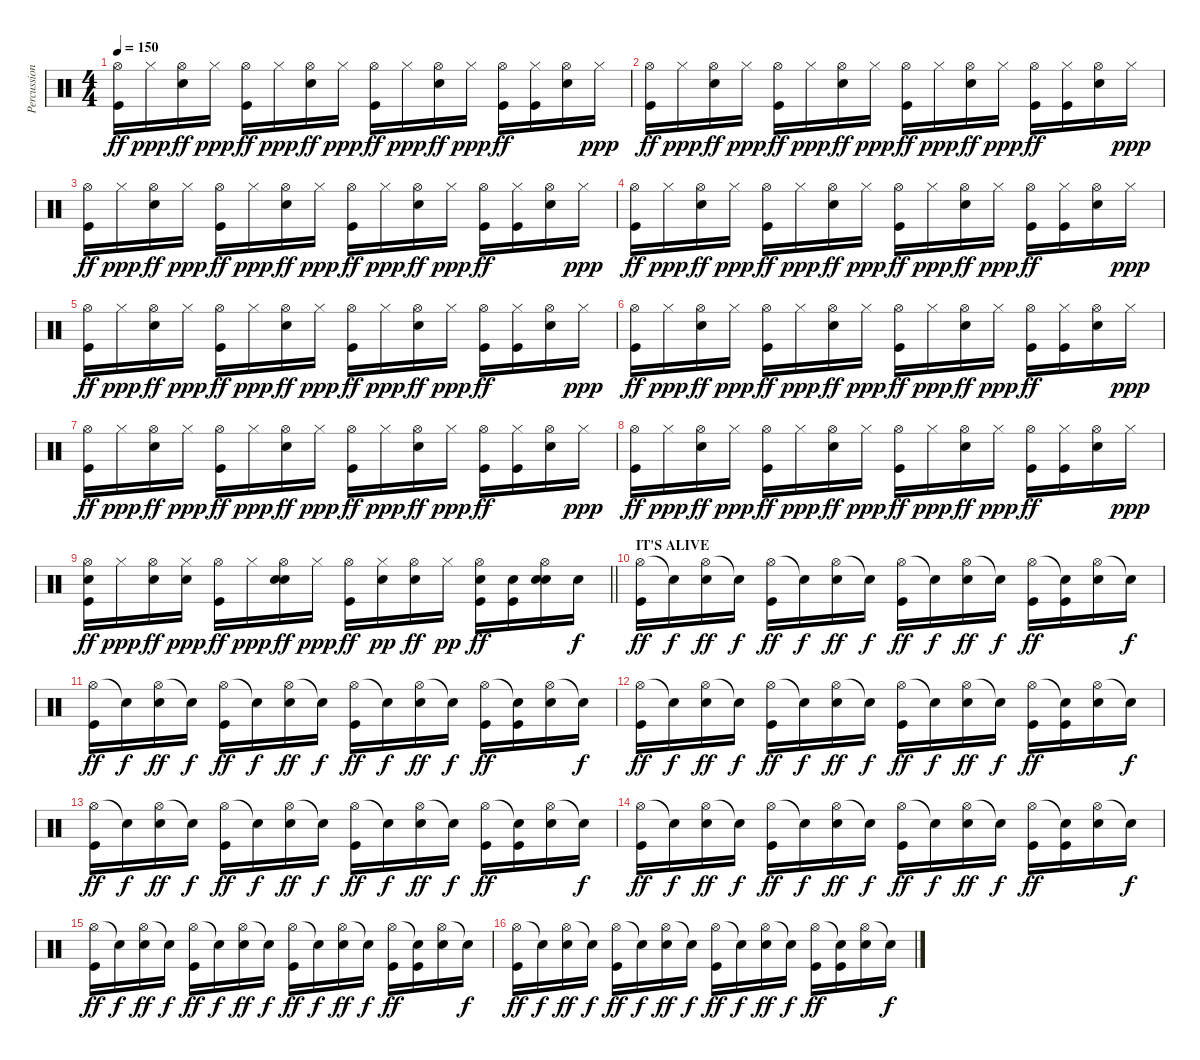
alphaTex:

\track ("Percussion" "Percussion") {instrument percussion}
\staff {score}
\articulation defaults
\ts (4 4)
\tempo 150
\clef neutral
\ks c
("Hi-Hat (open)" "Kick (hit)").16{dy ff} "Hi-Hat (closed)".16{dy ppp} ("Hi-Hat (open)" "Electric Snare (hit)").16{dy ff} "Hi-Hat (closed)".16{dy ppp} ("Hi-Hat (open)" "Kick (hit)").16{dy ff} "Hi-Hat (closed)".16{dy ppp} ("Hi-Hat (open)" "Electric Snare (hit)").16{dy ff} "Hi-Hat (closed)".16{dy ppp} ("Hi-Hat (open)" "Kick (hit)").16{dy ff} "Hi-Hat (closed)".16{dy ppp} ("Hi-Hat (open)" "Electric Snare (hit)").16{dy ff} "Hi-Hat (closed)".16{dy ppp} ("Hi-Hat (open)" "Kick (hit)").16{dy ff} ("Hi-Hat (closed)" "Kick (hit)").16 ("Hi-Hat (open)" "Electric Snare (hit)").16 "Hi-Hat (closed)".16{dy ppp} |
("Hi-Hat (open)" "Kick (hit)").16{dy ff} "Hi-Hat (closed)".16{dy ppp} ("Hi-Hat (open)" "Electric Snare (hit)").16{dy ff} "Hi-Hat (closed)".16{dy ppp} ("Hi-Hat (open)" "Kick (hit)").16{dy ff} "Hi-Hat (closed)".16{dy ppp} ("Hi-Hat (open)" "Electric Snare (hit)").16{dy ff} "Hi-Hat (closed)".16{dy ppp} ("Hi-Hat (open)" "Kick (hit)").16{dy ff} "Hi-Hat (closed)".16{dy ppp} ("Hi-Hat (open)" "Electric Snare (hit)").16{dy ff} "Hi-Hat (closed)".16{dy ppp} ("Hi-Hat (open)" "Kick (hit)").16{dy ff} ("Hi-Hat (closed)" "Kick (hit)").16 ("Hi-Hat (open)" "Electric Snare (hit)").16 "Hi-Hat (closed)".16{dy ppp} |
("Hi-Hat (open)" "Kick (hit)").16{dy ff} "Hi-Hat (closed)".16{dy ppp} ("Hi-Hat (open)" "Electric Snare (hit)").16{dy ff} "Hi-Hat (closed)".16{dy ppp} ("Hi-Hat (open)" "Kick (hit)").16{dy ff} "Hi-Hat (closed)".16{dy ppp} ("Hi-Hat (open)" "Electric Snare (hit)").16{dy ff} "Hi-Hat (closed)".16{dy ppp} ("Hi-Hat (open)" "Kick (hit)").16{dy ff} "Hi-Hat (closed)".16{dy ppp} ("Hi-Hat (open)" "Electric Snare (hit)").16{dy ff} "Hi-Hat (closed)".16{dy ppp} ("Hi-Hat (open)" "Kick (hit)").16{dy ff} ("Hi-Hat (closed)" "Kick (hit)").16 ("Hi-Hat (open)" "Electric Snare (hit)").16 "Hi-Hat (closed)".16{dy ppp} |
("Hi-Hat (open)" "Kick (hit)").16{dy ff} "Hi-Hat (closed)".16{dy ppp} ("Hi-Hat (open)" "Electric Snare (hit)").16{dy ff} "Hi-Hat (closed)".16{dy ppp} ("Hi-Hat (open)" "Kick (hit)").16{dy ff} "Hi-Hat (closed)".16{dy ppp} ("Hi-Hat (open)" "Electric Snare (hit)").16{dy ff} "Hi-Hat (closed)".16{dy ppp} ("Hi-Hat (open)" "Kick (hit)").16{dy ff} "Hi-Hat (closed)".16{dy ppp} ("Hi-Hat (open)" "Electric Snare (hit)").16{dy ff} "Hi-Hat (closed)".16{dy ppp} ("Hi-Hat (open)" "Kick (hit)").16{dy ff} ("Hi-Hat (closed)" "Kick (hit)").16 ("Hi-Hat (open)" "Electric Snare (hit)").16 "Hi-Hat (closed)".16{dy ppp} |
("Hi-Hat (open)" "Kick (hit)").16{dy ff} "Hi-Hat (closed)".16{dy ppp} ("Hi-Hat (open)" "Electric Snare (hit)").16{dy ff} "Hi-Hat (closed)".16{dy ppp} ("Hi-Hat (open)" "Kick (hit)").16{dy ff} "Hi-Hat (closed)".16{dy ppp} ("Hi-Hat (open)" "Electric Snare (hit)").16{dy ff} "Hi-Hat (closed)".16{dy ppp} ("Hi-Hat (open)" "Kick (hit)").16{dy ff} "Hi-Hat (closed)".16{dy ppp} ("Hi-Hat (open)" "Electric Snare (hit)").16{dy ff} "Hi-Hat (closed)".16{dy ppp} ("Hi-Hat (open)" "Kick (hit)").16{dy ff} ("Hi-Hat (closed)" "Kick (hit)").16 ("Hi-Hat (open)" "Electric Snare (hit)").16 "Hi-Hat (closed)".16{dy ppp} |
("Hi-Hat (open)" "Kick (hit)").16{dy ff} "Hi-Hat (closed)".16{dy ppp} ("Hi-Hat (open)" "Electric Snare (hit)").16{dy ff} "Hi-Hat (closed)".16{dy ppp} ("Hi-Hat (open)" "Kick (hit)").16{dy ff} "Hi-Hat (closed)".16{dy ppp} ("Hi-Hat (open)" "Electric Snare (hit)").16{dy ff} "Hi-Hat (closed)".16{dy ppp} ("Hi-Hat (open)" "Kick (hit)").16{dy ff} "Hi-Hat (closed)".16{dy ppp} ("Hi-Hat (open)" "Electric Snare (hit)").16{dy ff} "Hi-Hat (closed)".16{dy ppp} ("Hi-Hat (open)" "Kick (hit)").16{dy ff} ("Hi-Hat (closed)" "Kick (hit)").16 ("Hi-Hat (open)" "Electric Snare (hit)").16 "Hi-Hat (closed)".16{dy ppp} |
("Hi-Hat (open)" "Kick (hit)").16{dy ff} "Hi-Hat (closed)".16{dy ppp} ("Hi-Hat (open)" "Electric Snare (hit)").16{dy ff} "Hi-Hat (closed)".16{dy ppp} ("Hi-Hat (open)" "Kick (hit)").16{dy ff} "Hi-Hat (closed)".16{dy ppp} ("Hi-Hat (open)" "Electric Snare (hit)").16{dy ff} "Hi-Hat (closed)".16{dy ppp} ("Hi-Hat (open)" "Kick (hit)").16{dy ff} "Hi-Hat (closed)".16{dy ppp} ("Hi-Hat (open)" "Electric Snare (hit)").16{dy ff} "Hi-Hat (closed)".16{dy ppp} ("Hi-Hat (open)" "Kick (hit)").16{dy ff} ("Hi-Hat (closed)" "Kick (hit)").16 ("Hi-Hat (open)" "Electric Snare (hit)").16 "Hi-Hat (closed)".16{dy ppp} |
("Hi-Hat (open)" "Kick (hit)").16{dy ff} "Hi-Hat (closed)".16{dy ppp} ("Hi-Hat (open)" "Electric Snare (hit)").16{dy ff} "Hi-Hat (closed)".16{dy ppp} ("Hi-Hat (open)" "Kick (hit)").16{dy ff} "Hi-Hat (closed)".16{dy ppp} ("Hi-Hat (open)" "Electric Snare (hit)").16{dy ff} "Hi-Hat (closed)".16{dy ppp} ("Hi-Hat (open)" "Kick (hit)").16{dy ff} "Hi-Hat (closed)".16{dy ppp} ("Hi-Hat (open)" "Electric Snare (hit)").16{dy ff} "Hi-Hat (closed)".16{dy ppp} ("Hi-Hat (open)" "Kick (hit)").16{dy ff} ("Hi-Hat (closed)" "Kick (hit)").16 ("Hi-Hat (open)" "Electric Snare (hit)").16 "Hi-Hat (closed)".16{dy ppp} |
\barLineRight lightlight
("Hi-Hat (open)" "Electric Snare (hit)" "Kick (hit)").16{dy ff} "Hi-Hat (closed)".16{dy ppp} ("Hi-Hat (open)" "Electric Snare (hit)").16{dy ff} ("Hi-Hat (closed)" "Electric Snare (hit)").16{dy ppp} ("Hi-Hat (open)" "Kick (hit)").16{dy ff} "Hi-Hat (closed)".16{dy ppp} ("Hi-Hat (open)" "Electric Snare (hit)" "Electric Snare (hit)").16{dy ff} "Hi-Hat (closed)".16{dy ppp} ("Hi-Hat (open)" "Kick (hit)").16{dy ff} ("Hi-Hat (closed)" "Electric Snare (hit)").16{dy pp} ("Hi-Hat (open)" "Electric Snare (hit)").16{dy ff} "Hi-Hat (closed)".16{dy pp} ("Hi-Hat (open)" "Electric Snare (hit)" "Kick (hit)").16{dy ff} ("Electric Snare (hit)" "Kick (hit)").16 ("Hi-Hat (open)" "Electric Snare (hit)" "Electric Snare (hit)").16 "Electric Snare (hit)".16{dy f} |
\section ("" "IT'S ALIVE")
("Hi-Hat (open)" "Kick (hit)").16{dy ff} "Snare (hit)"{t}.16{dy f} ("Hi-Hat (open)" "Electric Snare (hit)").16{dy ff} "Snare (hit)"{t}.16{dy f} ("Hi-Hat (open)" "Kick (hit)").16{dy ff} "Snare (hit)"{t}.16{dy f} ("Hi-Hat (open)" "Electric Snare (hit)").16{dy ff} "Snare (hit)"{t}.16{dy f} ("Hi-Hat (open)" "Kick (hit)").16{dy ff} "Snare (hit)"{t}.16{dy f} ("Hi-Hat (open)" "Electric Snare (hit)").16{dy ff} "Snare (hit)"{t}.16{dy f} ("Hi-Hat (open)" "Kick (hit)").16{dy ff} ("Snare (hit)"{t} "Kick (hit)").16 ("Hi-Hat (open)" "Electric Snare (hit)").16 "Snare (hit)"{t}.16{dy f} |
("Hi-Hat (open)" "Kick (hit)").16{dy ff} "Snare (hit)"{t}.16{dy f} ("Hi-Hat (open)" "Electric Snare (hit)").16{dy ff} "Snare (hit)"{t}.16{dy f} ("Hi-Hat (open)" "Kick (hit)").16{dy ff} "Snare (hit)"{t}.16{dy f} ("Hi-Hat (open)" "Electric Snare (hit)").16{dy ff} "Snare (hit)"{t}.16{dy f} ("Hi-Hat (open)" "Kick (hit)").16{dy ff} "Snare (hit)"{t}.16{dy f} ("Hi-Hat (open)" "Electric Snare (hit)").16{dy ff} "Snare (hit)"{t}.16{dy f} ("Hi-Hat (open)" "Kick (hit)").16{dy ff} ("Snare (hit)"{t} "Kick (hit)").16 ("Hi-Hat (open)" "Electric Snare (hit)").16 "Snare (hit)"{t}.16{dy f} |
("Hi-Hat (open)" "Kick (hit)").16{dy ff} "Snare (hit)"{t}.16{dy f} ("Hi-Hat (open)" "Electric Snare (hit)").16{dy ff} "Snare (hit)"{t}.16{dy f} ("Hi-Hat (open)" "Kick (hit)").16{dy ff} "Snare (hit)"{t}.16{dy f} ("Hi-Hat (open)" "Electric Snare (hit)").16{dy ff} "Snare (hit)"{t}.16{dy f} ("Hi-Hat (open)" "Kick (hit)").16{dy ff} "Snare (hit)"{t}.16{dy f} ("Hi-Hat (open)" "Electric Snare (hit)").16{dy ff} "Snare (hit)"{t}.16{dy f} ("Hi-Hat (open)" "Kick (hit)").16{dy ff} ("Snare (hit)"{t} "Kick (hit)").16 ("Hi-Hat (open)" "Electric Snare (hit)").16 "Snare (hit)"{t}.16{dy f} |
("Hi-Hat (open)" "Kick (hit)").16{dy ff} "Snare (hit)"{t}.16{dy f} ("Hi-Hat (open)" "Electric Snare (hit)").16{dy ff} "Snare (hit)"{t}.16{dy f} ("Hi-Hat (open)" "Kick (hit)").16{dy ff} "Snare (hit)"{t}.16{dy f} ("Hi-Hat (open)" "Electric Snare (hit)").16{dy ff} "Snare (hit)"{t}.16{dy f} ("Hi-Hat (open)" "Kick (hit)").16{dy ff} "Snare (hit)"{t}.16{dy f} ("Hi-Hat (open)" "Electric Snare (hit)").16{dy ff} "Snare (hit)"{t}.16{dy f} ("Hi-Hat (open)" "Kick (hit)").16{dy ff} ("Snare (hit)"{t} "Kick (hit)").16 ("Hi-Hat (open)" "Electric Snare (hit)").16 "Snare (hit)"{t}.16{dy f} |
("Hi-Hat (open)" "Kick (hit)").16{dy ff} "Snare (hit)"{t}.16{dy f} ("Hi-Hat (open)" "Electric Snare (hit)").16{dy ff} "Snare (hit)"{t}.16{dy f} ("Hi-Hat (open)" "Kick (hit)").16{dy ff} "Snare (hit)"{t}.16{dy f} ("Hi-Hat (open)" "Electric Snare (hit)").16{dy ff} "Snare (hit)"{t}.16{dy f} ("Hi-Hat (open)" "Kick (hit)").16{dy ff} "Snare (hit)"{t}.16{dy f} ("Hi-Hat (open)" "Electric Snare (hit)").16{dy ff} "Snare (hit)"{t}.16{dy f} ("Hi-Hat (open)" "Kick (hit)").16{dy ff} ("Snare (hit)"{t} "Kick (hit)").16 ("Hi-Hat (open)" "Electric Snare (hit)").16 "Snare (hit)"{t}.16{dy f} |
("Hi-Hat (open)" "Kick (hit)").16{dy ff} "Snare (hit)"{t}.16{dy f} ("Hi-Hat (open)" "Electric Snare (hit)").16{dy ff} "Snare (hit)"{t}.16{dy f} ("Hi-Hat (open)" "Kick (hit)").16{dy ff} "Snare (hit)"{t}.16{dy f} ("Hi-Hat (open)" "Electric Snare (hit)").16{dy ff} "Snare (hit)"{t}.16{dy f} ("Hi-Hat (open)" "Kick (hit)").16{dy ff} "Snare (hit)"{t}.16{dy f} ("Hi-Hat (open)" "Electric Snare (hit)").16{dy ff} "Snare (hit)"{t}.16{dy f} ("Hi-Hat (open)" "Kick (hit)").16{dy ff} ("Snare (hit)"{t} "Kick (hit)").16 ("Hi-Hat (open)" "Electric Snare (hit)").16 "Snare (hit)"{t}.16{dy f} |
("Hi-Hat (open)" "Kick (hit)").16{dy ff} "Snare (hit)"{t}.16{dy f} ("Hi-Hat (open)" "Electric Snare (hit)").16{dy ff} "Snare (hit)"{t}.16{dy f} ("Hi-Hat (open)" "Kick (hit)").16{dy ff} "Snare (hit)"{t}.16{dy f} ("Hi-Hat (open)" "Electric Snare (hit)").16{dy ff} "Snare (hit)"{t}.16{dy f} ("Hi-Hat (open)" "Kick (hit)").16{dy ff} "Snare (hit)"{t}.16{dy f} ("Hi-Hat (open)" "Electric Snare (hit)").16{dy ff} "Snare (hit)"{t}.16{dy f} ("Hi-Hat (open)" "Kick (hit)").16{dy ff} ("Snare (hit)"{t} "Kick (hit)").16 ("Hi-Hat (open)" "Electric Snare (hit)").16 "Snare (hit)"{t}.16{dy f}
